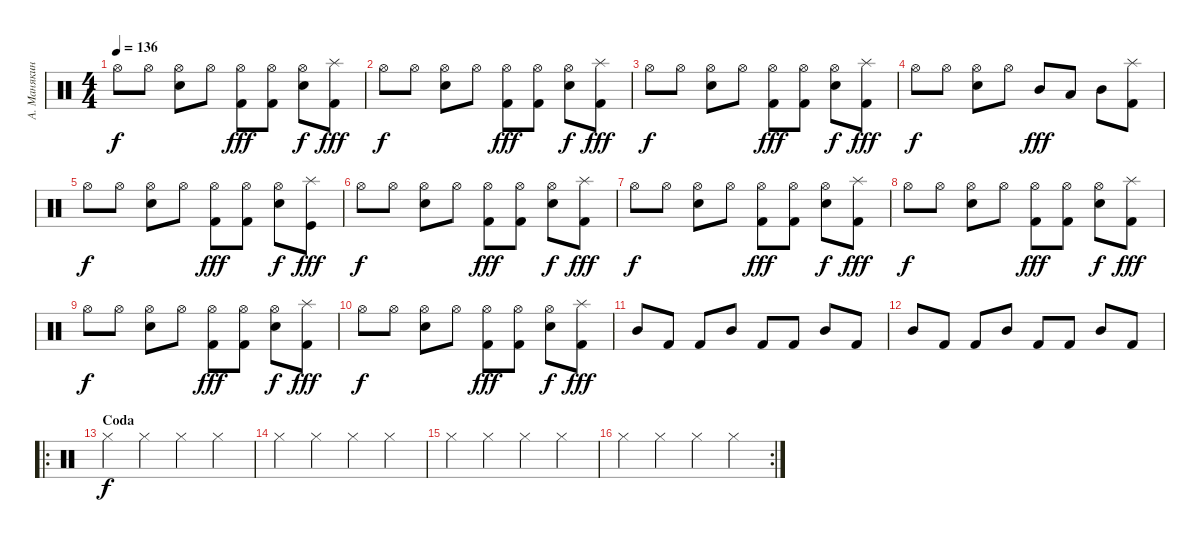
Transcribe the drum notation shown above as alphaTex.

\track ("А. Манякин" "А. Манякин") {instrument percussion}
\staff {score}
\articulation defaults
\ts (4 4)
\tempo 136
\clef neutral
\ks c "Hi-Hat (open)".8{dy f} "Hi-Hat (open)".8
("Hi-Hat (open)" "Electric Snare (hit)").8 "Hi-Hat (open)".8 ("Kick (hit) 2" "Hi-Hat (open)").8{dy fff} ("Kick (hit) 2" "Hi-Hat (open)").8 ("Hi-Hat (open)" "Electric Snare (hit)").8{dy f} ("Kick (hit) 2" "Splash (hit)").8{dy fff} |
"Hi-Hat (open)".8{dy f} "Hi-Hat (open)".8 ("Hi-Hat (open)" "Electric Snare (hit)").8 "Hi-Hat (open)".8 ("Kick (hit) 2" "Hi-Hat (open)").8{dy fff} ("Kick (hit) 2" "Hi-Hat (open)").8 ("Hi-Hat (open)" "Electric Snare (hit)").8{dy f} ("Kick (hit) 2" "Splash (hit)").8{dy fff} |
"Hi-Hat (open)".8{dy f} "Hi-Hat (open)".8 ("Hi-Hat (open)" "Electric Snare (hit)").8 "Hi-Hat (open)".8 ("Kick (hit) 2" "Hi-Hat (open)").8{dy fff} ("Kick (hit) 2" "Hi-Hat (open)").8 ("Hi-Hat (open)" "Electric Snare (hit)").8{dy f} ("Kick (hit) 2" "Splash (hit)").8{dy fff} |
"Hi-Hat (open)".8{dy f} "Hi-Hat (open)".8 ("Hi-Hat (open)" "Electric Snare (hit)").8 "Hi-Hat (open)".8 "Mid Tom (hit)".8{dy fff} "Low Tom (hit)".8 "Mid Tom (hit)".8 ("Kick (hit) 2" "Splash (hit)").8 |
"Hi-Hat (open)".8{dy f} "Hi-Hat (open)".8 ("Hi-Hat (open)" "Electric Snare (hit)").8 "Hi-Hat (open)".8 ("Kick (hit) 2" "Hi-Hat (open)").8{dy fff} ("Kick (hit) 2" "Hi-Hat (open)").8 ("Hi-Hat (open)" "Electric Snare (hit)").8{dy f} ("Kick (hit)" "Splash (hit)").8{dy fff} |
"Hi-Hat (open)".8{dy f} "Hi-Hat (open)".8 ("Hi-Hat (open)" "Electric Snare (hit)").8 "Hi-Hat (open)".8 ("Kick (hit) 2" "Hi-Hat (open)").8{dy fff} ("Kick (hit) 2" "Hi-Hat (open)").8 ("Hi-Hat (open)" "Electric Snare (hit)").8{dy f} ("Kick (hit) 2" "Splash (hit)").8{dy fff} |
"Hi-Hat (open)".8{dy f} "Hi-Hat (open)".8 ("Hi-Hat (open)" "Electric Snare (hit)").8 "Hi-Hat (open)".8 ("Kick (hit) 2" "Hi-Hat (open)").8{dy fff} ("Kick (hit) 2" "Hi-Hat (open)").8 ("Hi-Hat (open)" "Electric Snare (hit)").8{dy f} ("Kick (hit) 2" "Splash (hit)").8{dy fff} |
"Hi-Hat (open)".8{dy f} "Hi-Hat (open)".8 ("Hi-Hat (open)" "Electric Snare (hit)").8 "Hi-Hat (open)".8 ("Kick (hit) 2" "Hi-Hat (open)").8{dy fff} ("Kick (hit) 2" "Hi-Hat (open)").8 ("Hi-Hat (open)" "Electric Snare (hit)").8{dy f} ("Kick (hit) 2" "Splash (hit)").8{dy fff} |
"Hi-Hat (open)".8{dy f} "Hi-Hat (open)".8 ("Hi-Hat (open)" "Electric Snare (hit)").8 "Hi-Hat (open)".8 ("Kick (hit) 2" "Hi-Hat (open)").8{dy fff} ("Kick (hit) 2" "Hi-Hat (open)").8 ("Hi-Hat (open)" "Electric Snare (hit)").8{dy f} ("Kick (hit) 2" "Splash (hit)").8{dy fff} |
"Hi-Hat (open)".8{dy f} "Hi-Hat (open)".8 ("Hi-Hat (open)" "Electric Snare (hit)").8 "Hi-Hat (open)".8 ("Kick (hit) 2" "Hi-Hat (open)").8{dy fff} ("Kick (hit) 2" "Hi-Hat (open)").8 ("Hi-Hat (open)" "Electric Snare (hit)").8{dy f} ("Kick (hit) 2" "Splash (hit)").8{dy fff} |
"Mid Tom (hit)".8 "Kick (hit) 2".8 "Kick (hit) 2".8 "Mid Tom (hit)".8 "Kick (hit) 2".8 "Kick (hit) 2".8 "Mid Tom (hit)".8 "Kick (hit) 2".8 |
"Mid Tom (hit)".8 "Kick (hit) 2".8 "Kick (hit) 2".8 "Mid Tom (hit)".8 "Kick (hit) 2".8 "Kick (hit) 2".8 "Mid Tom (hit)".8 "Kick (hit) 2".8 |
\ro
\section ("" "Coda")
"Hi-Hat (closed)".4{dy f} "Hi-Hat (closed)".4 "Hi-Hat (closed)".4 "Hi-Hat (closed)".4 |
"Hi-Hat (closed)".4 "Hi-Hat (closed)".4 "Hi-Hat (closed)".4 "Hi-Hat (closed)".4 |
"Hi-Hat (closed)".4 "Hi-Hat (closed)".4 "Hi-Hat (closed)".4 "Hi-Hat (closed)".4 |
\rc 2 "Hi-Hat (closed)".4 "Hi-Hat (closed)".4 "Hi-Hat (closed)".4 "Hi-Hat (closed)".4
